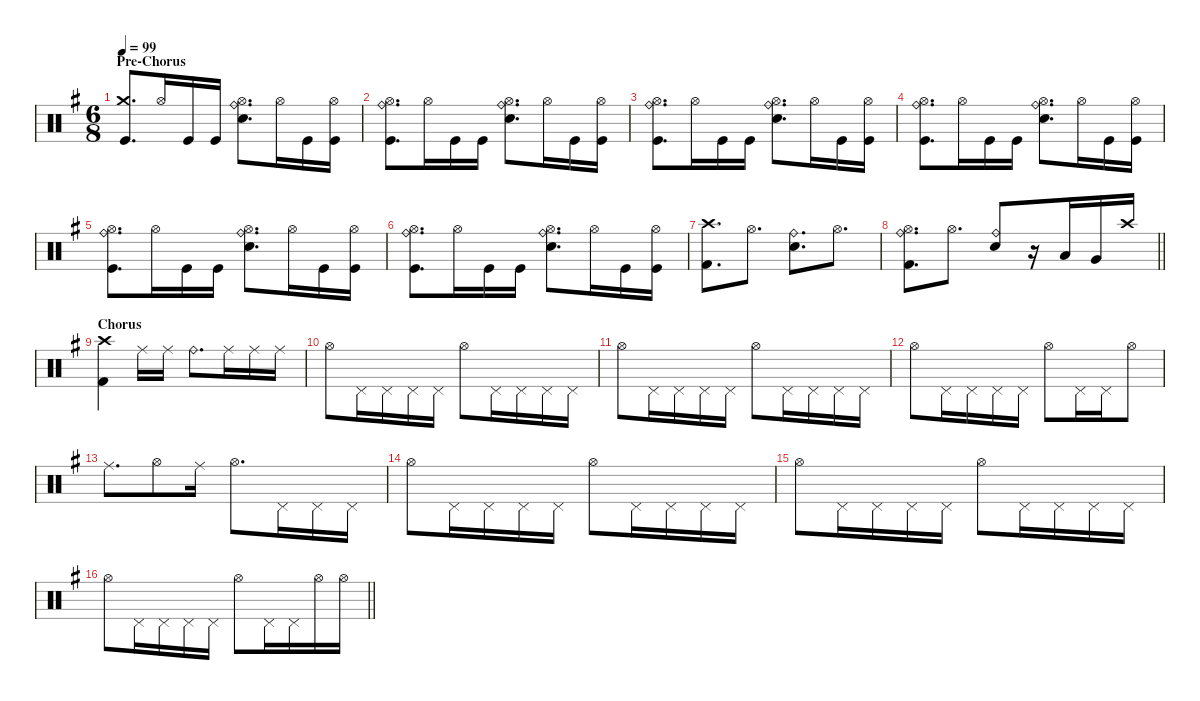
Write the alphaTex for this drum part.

\defaultSystemsLayout 4
\hideDynamics
\bracketExtendMode nobrackets
\singleTrackTrackNamePolicy hidden
\multiTrackTrackNamePolicy hidden
\otherSystemsTrackNameOrientation horizontal
\track ("Dave Abbruzzese" "drm.") {defaultSystemsLayout 4 instrument percussion}
\staff {score}
\articulation defaults
\ts (6 8)
\section ("" "Pre-Chorus")
\tempo 99
\clef neutral
\ks g
("Crash medium (hit)"{acc forcenatural} "Kick (hit)"{acc forcenatural}).8{d dy fff beam Up} "Hi-Hat (open)"{acc forcenatural}.16{dy f beam Up} "Kick (hit)"{acc forcenatural}.16{dy fff beam Up} "Kick (hit)"{acc forcenatural}.16{beam Up} ("Ride (bell)"{acc forcenatural} "Snare (hit) 2"{acc forcenatural} "Hi-Hat (open)"{acc forcenatural}).8{d beam Down} "Hi-Hat (open)"{acc forcenatural}.16{beam Down} "Kick (hit)"{acc forcenatural}.16{beam Down} ("Hi-Hat (open)"{acc forcenatural} "Kick (hit)"{acc forcenatural}).16{beam Down} |
("Ride (bell)"{acc forcenatural} "Kick (hit)"{acc forcenatural} "Hi-Hat (open)"{acc forcenatural}).8{d beam Down} "Hi-Hat (open)"{acc forcenatural}.16{beam Down} "Kick (hit)"{acc forcenatural}.16{beam Down} "Kick (hit)"{acc forcenatural}.16{beam Down} ("Ride (bell)"{acc forcenatural} "Snare (hit) 2"{acc forcenatural} "Hi-Hat (open)"{acc forcenatural}).8{d beam Down} "Hi-Hat (open)"{acc forcenatural}.16{beam Down} "Kick (hit)"{acc forcenatural}.16{beam Down} ("Hi-Hat (open)"{acc forcenatural} "Kick (hit)"{acc forcenatural}).16{beam Down} |
("Ride (bell)"{acc forcenatural} "Kick (hit)"{acc forcenatural} "Hi-Hat (open)"{acc forcenatural}).8{d beam Down} "Hi-Hat (open)"{acc forcenatural}.16{beam Down} "Kick (hit)"{acc forcenatural}.16{beam Down} "Kick (hit)"{acc forcenatural}.16{beam Down} ("Ride (bell)"{acc forcenatural} "Snare (hit) 2"{acc forcenatural} "Hi-Hat (open)"{acc forcenatural}).8{d beam Down} "Hi-Hat (open)"{acc forcenatural}.16{beam Down} "Kick (hit)"{acc forcenatural}.16{beam Down} ("Hi-Hat (open)"{acc forcenatural} "Kick (hit)"{acc forcenatural}).16{beam Down} |
("Ride (bell)"{acc forcenatural} "Kick (hit)"{acc forcenatural} "Hi-Hat (open)"{acc forcenatural}).8{d beam Down} "Hi-Hat (open)"{acc forcenatural}.16{beam Down} "Kick (hit)"{acc forcenatural}.16{beam Down} "Kick (hit)"{acc forcenatural}.16{beam Down} ("Ride (bell)"{acc forcenatural} "Snare (hit) 2"{acc forcenatural} "Hi-Hat (open)"{acc forcenatural}).8{d beam Down} "Hi-Hat (open)"{acc forcenatural}.16{beam Down} "Kick (hit)"{acc forcenatural}.16{beam Down} ("Hi-Hat (open)"{acc forcenatural} "Kick (hit)"{acc forcenatural}).16{beam Down} |
("Ride (bell)"{acc forcenatural} "Kick (hit)"{acc forcenatural} "Hi-Hat (open)"{acc forcenatural}).8{d beam Down} "Hi-Hat (open)"{acc forcenatural}.16{beam Down} "Kick (hit)"{acc forcenatural}.16{beam Down} "Kick (hit)"{acc forcenatural}.16{beam Down} ("Ride (bell)"{acc forcenatural} "Snare (hit) 2"{acc forcenatural} "Hi-Hat (open)"{acc forcenatural}).8{d beam Down} "Hi-Hat (open)"{acc forcenatural}.16{beam Down} "Kick (hit)"{acc forcenatural}.16{beam Down} ("Hi-Hat (open)"{acc forcenatural} "Kick (hit)"{acc forcenatural}).16{beam Down} |
("Ride (bell)"{acc forcenatural} "Kick (hit)"{acc forcenatural} "Hi-Hat (open)"{acc forcenatural}).8{d beam Down} "Hi-Hat (open)"{acc forcenatural}.16{beam Down} "Kick (hit)"{acc forcenatural}.16{beam Down} "Kick (hit)"{acc forcenatural}.16{beam Down} ("Ride (bell)"{acc forcenatural} "Snare (hit) 2"{acc forcenatural} "Hi-Hat (open)"{acc forcenatural}).8{d beam Down} "Hi-Hat (open)"{acc forcenatural}.16{beam Down} "Kick (hit)"{acc forcenatural}.16{beam Down} ("Hi-Hat (open)"{acc forcenatural} "Kick (hit)"{acc forcenatural}).16{beam Down} |
("Crash high (hit)"{acc forcenatural} "Kick (hit) 2"{acc forcenatural}).8{d dy f beam Down} "Hi-Hat (open)"{acc forcenatural}.8{d beam Down} ("Ride (bell)"{acc forcenatural} "Snare (hit) 2"{acc forcenatural}).8{d beam Down} "Hi-Hat (open)"{acc forcenatural}.8{d beam Down} |
\barLineRight lightlight
("Ride (bell)"{acc forcenatural} "Hi-Hat (open)"{acc forcenatural} "Kick (hit) 2"{acc forcenatural}).8{d beam Down} "Hi-Hat (open)"{acc forcenatural}.8{d beam Down} ("Ride (bell)"{acc forcenatural} "Snare (hit) 2"{acc forcenatural}).8{beam Up} r.16{beam Up} "Low Tom (hit)"{acc forcenatural}.16{beam Up} "Very Low Tom (hit)"{acc forcenatural}.16{beam Up} "Crash high (hit)"{acc forcenatural}.16{beam Up} |
\section ("" "Chorus")
("Crash high (hit)"{acc forcenatural} "Kick (hit) 2"{acc forcenatural}).4{beam Down} "Ride (middle)"{acc forcenatural}.16{dy mp beam Down} "Ride (middle)"{acc forcenatural}.16{beam Down} "Ride (bell)"{acc forcenatural}.8{d beam Down} "Ride (middle)"{acc forcenatural}.16{beam Down} "Ride (middle)"{acc forcenatural}.16{dy p beam Down} "Ride (middle)"{acc forcenatural}.16{beam Down} |
"Hi-Hat (open)"{acc forcenatural}.8{beam Down} "Pedal Hi-Hat (hit)"{acc forcenatural}.16{dy pp beam Down} "Pedal Hi-Hat (hit)"{acc forcenatural}.16{beam Down} "Pedal Hi-Hat (hit)"{acc forcenatural}.16{beam Down} "Pedal Hi-Hat (hit)"{acc forcenatural}.16{beam Down} "Hi-Hat (open)"{acc forcenatural}.8{dy p beam Down} "Pedal Hi-Hat (hit)"{acc forcenatural}.16{dy pp beam Down} "Pedal Hi-Hat (hit)"{acc forcenatural}.16{beam Down} "Pedal Hi-Hat (hit)"{acc forcenatural}.16{beam Down} "Pedal Hi-Hat (hit)"{acc forcenatural}.16{beam Down} |
"Hi-Hat (open)"{acc forcenatural}.8{dy p beam Down} "Pedal Hi-Hat (hit)"{acc forcenatural}.16{dy pp beam Down} "Pedal Hi-Hat (hit)"{acc forcenatural}.16{beam Down} "Pedal Hi-Hat (hit)"{acc forcenatural}.16{beam Down} "Pedal Hi-Hat (hit)"{acc forcenatural}.16{beam Down} "Hi-Hat (open)"{acc forcenatural}.8{dy p beam Down} "Pedal Hi-Hat (hit)"{acc forcenatural}.16{dy pp beam Down} "Pedal Hi-Hat (hit)"{acc forcenatural}.16{beam Down} "Pedal Hi-Hat (hit)"{acc forcenatural}.16{beam Down} "Pedal Hi-Hat (hit)"{acc forcenatural}.16{beam Down} |
"Hi-Hat (open)"{acc forcenatural}.8{dy p beam Down} "Pedal Hi-Hat (hit)"{acc forcenatural}.16{dy pp beam Down} "Pedal Hi-Hat (hit)"{acc forcenatural}.16{beam Down} "Pedal Hi-Hat (hit)"{acc forcenatural}.16{beam Down} "Pedal Hi-Hat (hit)"{acc forcenatural}.16{beam Down} "Hi-Hat (open)"{acc forcenatural}.8{dy p beam Down} "Pedal Hi-Hat (hit)"{acc forcenatural}.16{dy pp beam Down} "Pedal Hi-Hat (hit)"{acc forcenatural}.16{beam Down} "Hi-Hat (open)"{acc forcenatural}.8{dy p beam Down} |
"Ride (middle)"{acc forcenatural}.8{d beam Down} "Hi-Hat (open)"{acc forcenatural}.8{beam Down} "Ride (middle)"{acc forcenatural}.16{dy mp beam Down} "Hi-Hat (open)"{acc forcenatural}.8{d dy pp beam Down} "Pedal Hi-Hat (hit)"{acc forcenatural}.16{beam Down} "Pedal Hi-Hat (hit)"{acc forcenatural}.16{beam Down} "Pedal Hi-Hat (hit)"{acc forcenatural}.16{beam Down} |
"Hi-Hat (open)"{acc forcenatural}.8{dy p beam Down} "Pedal Hi-Hat (hit)"{acc forcenatural}.16{dy pp beam Down} "Pedal Hi-Hat (hit)"{acc forcenatural}.16{beam Down} "Pedal Hi-Hat (hit)"{acc forcenatural}.16{beam Down} "Pedal Hi-Hat (hit)"{acc forcenatural}.16{beam Down} "Hi-Hat (open)"{acc forcenatural}.8{dy p beam Down} "Pedal Hi-Hat (hit)"{acc forcenatural}.16{dy pp beam Down} "Pedal Hi-Hat (hit)"{acc forcenatural}.16{beam Down} "Pedal Hi-Hat (hit)"{acc forcenatural}.16{beam Down} "Pedal Hi-Hat (hit)"{acc forcenatural}.16{beam Down} |
"Hi-Hat (open)"{acc forcenatural}.8{dy p beam Down} "Pedal Hi-Hat (hit)"{acc forcenatural}.16{dy pp beam Down} "Pedal Hi-Hat (hit)"{acc forcenatural}.16{beam Down} "Pedal Hi-Hat (hit)"{acc forcenatural}.16{beam Down} "Pedal Hi-Hat (hit)"{acc forcenatural}.16{beam Down} "Hi-Hat (open)"{acc forcenatural}.8{dy p beam Down} "Pedal Hi-Hat (hit)"{acc forcenatural}.16{dy pp beam Down} "Pedal Hi-Hat (hit)"{acc forcenatural}.16{beam Down} "Pedal Hi-Hat (hit)"{acc forcenatural}.16{beam Down} "Pedal Hi-Hat (hit)"{acc forcenatural}.16{beam Down} |
\barLineRight lightlight "Hi-Hat (open)"{acc forcenatural}.8{dy p beam Down} "Pedal Hi-Hat (hit)"{acc forcenatural}.16{dy pp beam Down} "Pedal Hi-Hat (hit)"{acc forcenatural}.16{beam Down} "Pedal Hi-Hat (hit)"{acc forcenatural}.16{beam Down} "Pedal Hi-Hat (hit)"{acc forcenatural}.16{beam Down} "Hi-Hat (open)"{acc forcenatural}.8{dy p beam Down} "Pedal Hi-Hat (hit)"{acc forcenatural}.16{dy pp beam Down} "Pedal Hi-Hat (hit)"{acc forcenatural}.16{beam Down} "Hi-Hat (open)"{acc forcenatural}.16{dy f beam Down} "Hi-Hat (open)"{acc forcenatural}.16{beam Down}
